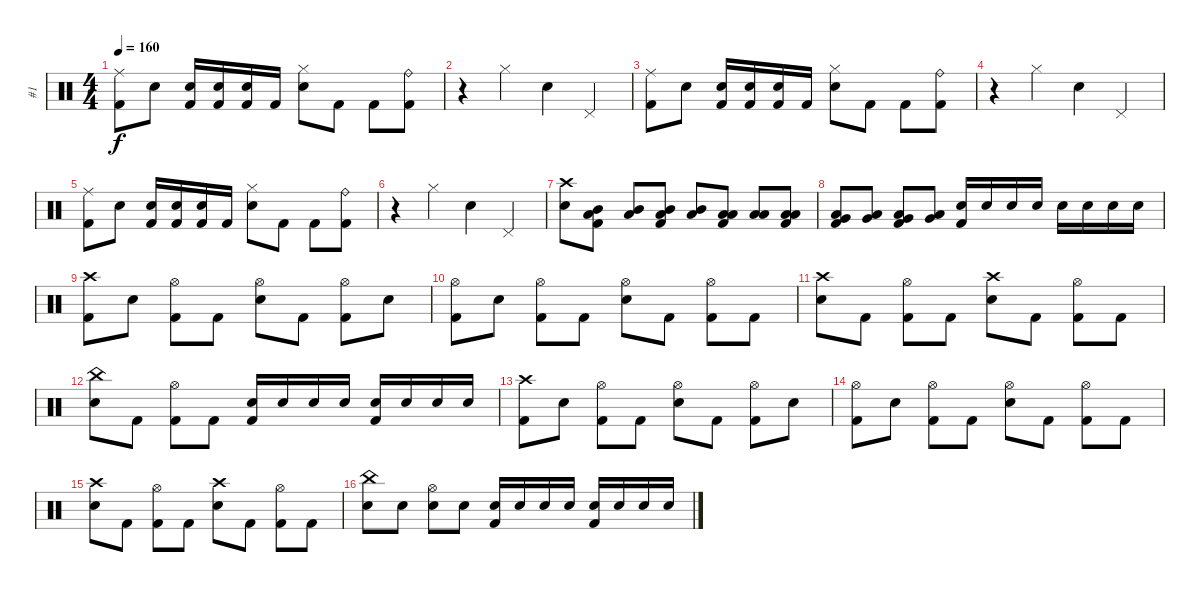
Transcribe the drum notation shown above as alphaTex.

\track ("#1" "#1") {instrument percussion}
\staff {score}
\articulation defaults
\ts (4 4)
\tempo 160
\clef neutral
\ks c
("Kick (hit) 2" "Ride (middle)").8{dy f} "Electric Snare (hit)".8 ("Kick (hit) 2" "Electric Snare (hit)").16 ("Kick (hit) 2" "Electric Snare (hit)").16 ("Kick (hit) 2" "Electric Snare (hit)").16 "Kick (hit) 2".16 ("Electric Snare (hit)" "Hi-Hat (closed)").8 "Kick (hit) 2".8 "Kick (hit) 2".8 ("Kick (hit) 2" "Ride (bell)").8 |
r.4 "Hi-Hat (closed)".4 "Electric Snare (hit)".4 "Pedal Hi-Hat (hit)".4 |
("Kick (hit) 2" "Ride (middle)").8 "Electric Snare (hit)".8 ("Kick (hit) 2" "Electric Snare (hit)").16 ("Kick (hit) 2" "Electric Snare (hit)").16 ("Kick (hit) 2" "Electric Snare (hit)").16 "Kick (hit) 2".16 ("Electric Snare (hit)" "Hi-Hat (closed)").8 "Kick (hit) 2".8 "Kick (hit) 2".8 ("Kick (hit) 2" "Ride (bell)").8 |
r.4 "Hi-Hat (closed)".4 "Electric Snare (hit)".4 "Pedal Hi-Hat (hit)".4 |
("Kick (hit) 2" "Ride (middle)").8 "Electric Snare (hit)".8 ("Kick (hit) 2" "Electric Snare (hit)").16 ("Kick (hit) 2" "Electric Snare (hit)").16 ("Kick (hit) 2" "Electric Snare (hit)").16 "Kick (hit) 2".16 ("Electric Snare (hit)" "Hi-Hat (closed)").8 "Kick (hit) 2".8 "Kick (hit) 2".8 ("Kick (hit) 2" "Ride (bell)").8 |
r.4 "Hi-Hat (closed)".4 "Electric Snare (hit)".4 "Pedal Hi-Hat (hit)".4 |
("Electric Snare (hit)" "Crash high (hit)").8 ("Mid Tom (hit)" "Kick (hit) 2" "Low Floor Tom (hit)").8 ("Mid Tom (hit)" "Low Floor Tom (hit)").8 ("Mid Tom (hit)" "Kick (hit) 2" "Low Floor Tom (hit)").8 ("Mid Tom (hit)" "Low Floor Tom (hit)").8 ("Low Tom (hit)" "Kick (hit) 2" "Low Floor Tom (hit)").8 ("Low Tom (hit)" "Low Floor Tom (hit)").8 ("Low Tom (hit)" "Kick (hit) 2" "Low Floor Tom (hit)").8 |
("Very Low Tom (hit)" "Kick (hit) 2" "Low Floor Tom (hit)").8 ("Very Low Tom (hit)" "Low Floor Tom (hit)").8 ("Very Low Tom (hit)" "Kick (hit) 2" "Low Floor Tom (hit)").8 ("Very Low Tom (hit)" "Low Floor Tom (hit)").8 ("Electric Snare (hit)" "Kick (hit) 2").16 "Electric Snare (hit)".16 "Electric Snare (hit)".16 "Electric Snare (hit)".16 "Electric Snare (hit)".16 "Electric Snare (hit)".16 "Electric Snare (hit)".16 "Electric Snare (hit)".16 |
("Kick (hit) 2" "Crash high (hit)").8 "Electric Snare (hit)".8 ("Kick (hit) 2" "Hi-Hat (open)").8 "Kick (hit) 2".8 ("Electric Snare (hit)" "Hi-Hat (open)").8 "Kick (hit) 2".8 ("Kick (hit) 2" "Hi-Hat (open)").8 "Electric Snare (hit)".8 |
("Kick (hit) 2" "Hi-Hat (open)").8 "Electric Snare (hit)".8 ("Kick (hit) 2" "Hi-Hat (open)").8 "Kick (hit) 2".8 ("Electric Snare (hit)" "Hi-Hat (open)").8 "Kick (hit) 2".8 ("Kick (hit) 2" "Hi-Hat (open)").8 "Kick (hit) 2".8 |
("Electric Snare (hit)" "Crash high (hit)").8 "Kick (hit) 2".8 ("Kick (hit) 2" "Hi-Hat (open)").8 "Kick (hit) 2".8 ("Electric Snare (hit)" "Crash high (hit)").8 "Kick (hit) 2".8 ("Kick (hit) 2" "Hi-Hat (open)").8 "Kick (hit) 2".8 |
("Electric Snare (hit)" "China (hit)").8 "Kick (hit) 2".8 ("Kick (hit) 2" "Hi-Hat (open)").8 "Kick (hit) 2".8 ("Electric Snare (hit)" "Kick (hit) 2").16 "Electric Snare (hit)".16 "Electric Snare (hit)".16 "Electric Snare (hit)".16 ("Electric Snare (hit)" "Kick (hit) 2").16 "Electric Snare (hit)".16 "Electric Snare (hit)".16 "Electric Snare (hit)".16 |
("Kick (hit) 2" "Crash high (hit)").8 "Electric Snare (hit)".8 ("Kick (hit) 2" "Hi-Hat (open)").8 "Kick (hit) 2".8 ("Electric Snare (hit)" "Hi-Hat (open)").8 "Kick (hit) 2".8 ("Kick (hit) 2" "Hi-Hat (open)").8 "Electric Snare (hit)".8 |
("Kick (hit) 2" "Hi-Hat (open)").8 "Electric Snare (hit)".8 ("Kick (hit) 2" "Hi-Hat (open)").8 "Kick (hit) 2".8 ("Electric Snare (hit)" "Hi-Hat (open)").8 "Kick (hit) 2".8 ("Kick (hit) 2" "Hi-Hat (open)").8 "Kick (hit) 2".8 |
("Electric Snare (hit)" "Crash high (hit)").8 "Kick (hit) 2".8 ("Kick (hit) 2" "Hi-Hat (open)").8 "Kick (hit) 2".8 ("Electric Snare (hit)" "Crash high (hit)").8 "Kick (hit) 2".8 ("Kick (hit) 2" "Hi-Hat (open)").8 "Kick (hit) 2".8 |
("Electric Snare (hit)" "China (hit)").8 "Electric Snare (hit)".8 ("Electric Snare (hit)" "Hi-Hat (open)").8 "Electric Snare (hit)".8 ("Electric Snare (hit)" "Kick (hit) 2").16 "Electric Snare (hit)".16 "Electric Snare (hit)".16 "Electric Snare (hit)".16 ("Electric Snare (hit)" "Kick (hit) 2").16 "Electric Snare (hit)".16 "Electric Snare (hit)".16 "Electric Snare (hit)".16
